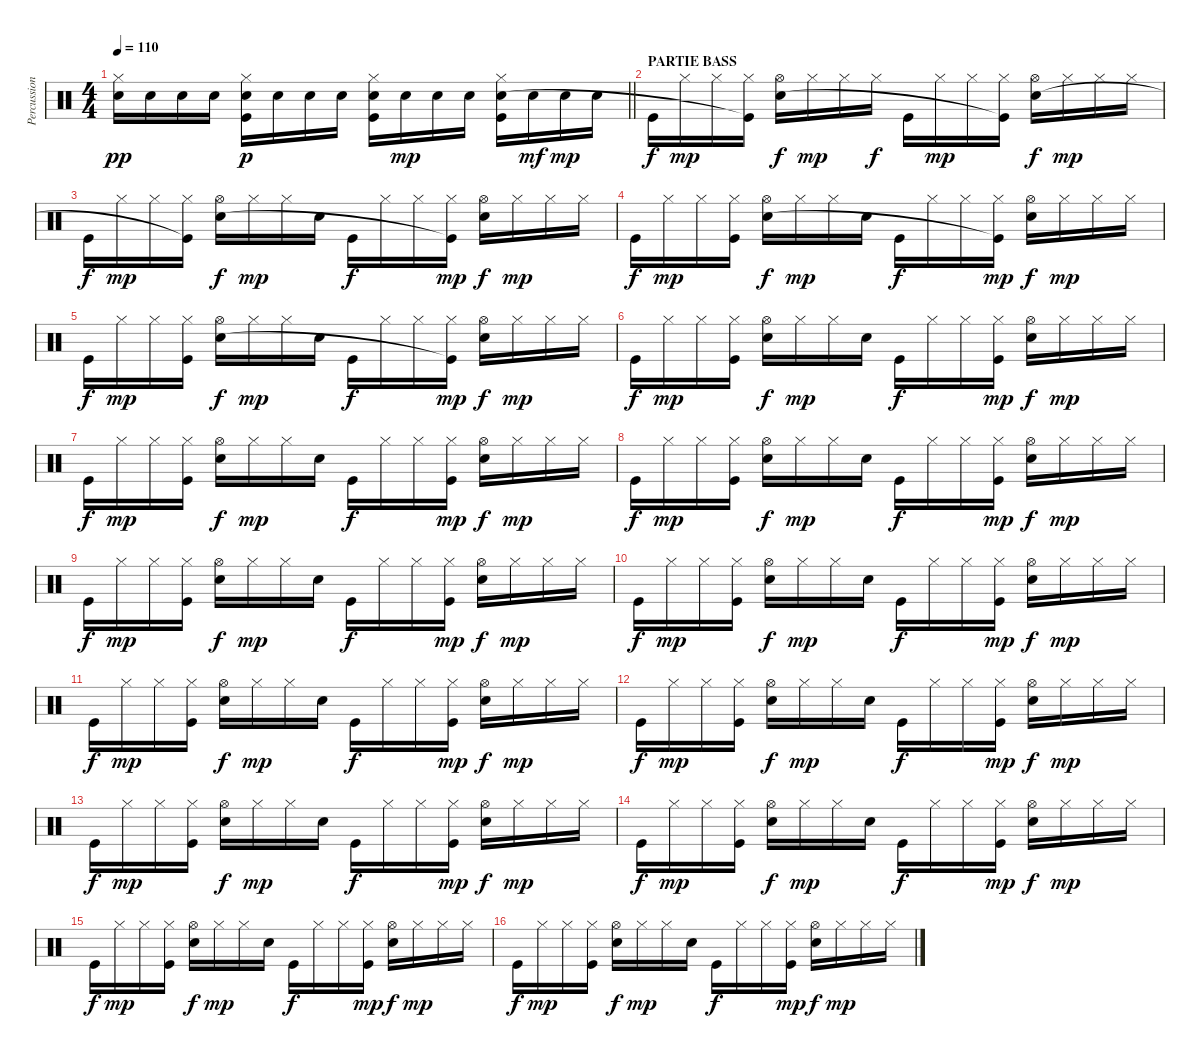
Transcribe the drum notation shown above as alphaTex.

\track ("Percussions" "Percussion") {instrument percussion}
\staff {score}
\articulation defaults
\ts (4 4)
\tempo 110
\clef neutral
\barLineRight lightlight
\ks c
("Hi-Hat (closed)" "Electric Snare (hit)").16{dy pp} "Electric Snare (hit)".16 "Electric Snare (hit)".16 "Electric Snare (hit)".16 ("Hi-Hat (closed)" "Electric Snare (hit)" "Kick (hit)").16{dy p} "Electric Snare (hit)".16 "Electric Snare (hit)".16 "Electric Snare (hit)".16 ("Hi-Hat (closed)" "Electric Snare (hit)" "Kick (hit)").16 "Electric Snare (hit)".16{dy mp} "Electric Snare (hit)".16 "Electric Snare (hit)".16 ("Hi-Hat (closed)" "Electric Snare (hit)" "Kick (hit)").16 "Electric Snare (hit)".16{dy mf} "Electric Snare (hit)".16{dy mp} "Electric Snare (hit)".16 |
\section ("" "PARTIE BASS")
"Kick (hit)".16{dy f} "Hi-Hat (closed)".16{dy mp} "Hi-Hat (closed)".16 ("Hi-Hat (closed)" "Kick (hit)"{t}).16 ("Hi-Hat (open)" "Electric Snare (hit)").16{dy f} "Hi-Hat (closed)".16{dy mp} "Hi-Hat (closed)".16 "Hi-Hat (closed)".16{dy f} "Kick (hit)".16 "Hi-Hat (closed)".16{dy mp} "Hi-Hat (closed)".16 ("Hi-Hat (closed)" "Kick (hit)"{t}).16 ("Hi-Hat (open)" "Electric Snare (hit)").16{dy f} "Hi-Hat (closed)".16{dy mp} "Hi-Hat (closed)".16 "Hi-Hat (closed)".16 |
"Kick (hit)".16{dy f} "Hi-Hat (closed)".16{dy mp} "Hi-Hat (closed)".16 ("Hi-Hat (closed)" "Kick (hit)"{t}).16 ("Hi-Hat (open)" "Electric Snare (hit)").16{dy f} "Hi-Hat (closed)".16{dy mp} "Hi-Hat (closed)".16 "Electric Snare (hit)".16 "Kick (hit)".16{dy f} "Hi-Hat (closed)".16 "Hi-Hat (closed)".16 ("Hi-Hat (closed)" "Kick (hit)"{t}).16{dy mp} ("Hi-Hat (open)" "Electric Snare (hit)").16{dy f} "Hi-Hat (closed)".16{dy mp} "Hi-Hat (closed)".16 "Hi-Hat (closed)".16 |
"Kick (hit)".16{dy f} "Hi-Hat (closed)".16{dy mp} "Hi-Hat (closed)".16 ("Hi-Hat (closed)" "Kick (hit)").16 ("Hi-Hat (open)" "Electric Snare (hit)").16{dy f} "Hi-Hat (closed)".16{dy mp} "Hi-Hat (closed)".16 "Electric Snare (hit)".16 "Kick (hit)".16{dy f} "Hi-Hat (closed)".16 "Hi-Hat (closed)".16 ("Hi-Hat (closed)" "Kick (hit)"{t}).16{dy mp} ("Hi-Hat (open)" "Electric Snare (hit)").16{dy f} "Hi-Hat (closed)".16{dy mp} "Hi-Hat (closed)".16 "Hi-Hat (closed)".16 |
"Kick (hit)".16{dy f} "Hi-Hat (closed)".16{dy mp} "Hi-Hat (closed)".16 ("Hi-Hat (closed)" "Kick (hit)").16 ("Hi-Hat (open)" "Electric Snare (hit)").16{dy f} "Hi-Hat (closed)".16{dy mp} "Hi-Hat (closed)".16 "Electric Snare (hit)".16 "Kick (hit)".16{dy f} "Hi-Hat (closed)".16 "Hi-Hat (closed)".16 ("Hi-Hat (closed)" "Kick (hit)"{t}).16{dy mp} ("Hi-Hat (open)" "Electric Snare (hit)").16{dy f} "Hi-Hat (closed)".16{dy mp} "Hi-Hat (closed)".16 "Hi-Hat (closed)".16 |
"Kick (hit)".16{dy f} "Hi-Hat (closed)".16{dy mp} "Hi-Hat (closed)".16 ("Hi-Hat (closed)" "Kick (hit)").16 ("Hi-Hat (open)" "Electric Snare (hit)").16{dy f} "Hi-Hat (closed)".16{dy mp} "Hi-Hat (closed)".16 "Electric Snare (hit)".16 "Kick (hit)".16{dy f} "Hi-Hat (closed)".16 "Hi-Hat (closed)".16 ("Hi-Hat (closed)" "Kick (hit)").16{dy mp} ("Hi-Hat (open)" "Electric Snare (hit)").16{dy f} "Hi-Hat (closed)".16{dy mp} "Hi-Hat (closed)".16 "Hi-Hat (closed)".16 |
"Kick (hit)".16{dy f} "Hi-Hat (closed)".16{dy mp} "Hi-Hat (closed)".16 ("Hi-Hat (closed)" "Kick (hit)").16 ("Hi-Hat (open)" "Electric Snare (hit)").16{dy f} "Hi-Hat (closed)".16{dy mp} "Hi-Hat (closed)".16 "Electric Snare (hit)".16 "Kick (hit)".16{dy f} "Hi-Hat (closed)".16 "Hi-Hat (closed)".16 ("Hi-Hat (closed)" "Kick (hit)").16{dy mp} ("Hi-Hat (open)" "Electric Snare (hit)").16{dy f} "Hi-Hat (closed)".16{dy mp} "Hi-Hat (closed)".16 "Hi-Hat (closed)".16 |
"Kick (hit)".16{dy f} "Hi-Hat (closed)".16{dy mp} "Hi-Hat (closed)".16 ("Hi-Hat (closed)" "Kick (hit)").16 ("Hi-Hat (open)" "Electric Snare (hit)").16{dy f} "Hi-Hat (closed)".16{dy mp} "Hi-Hat (closed)".16 "Electric Snare (hit)".16 "Kick (hit)".16{dy f} "Hi-Hat (closed)".16 "Hi-Hat (closed)".16 ("Hi-Hat (closed)" "Kick (hit)").16{dy mp} ("Hi-Hat (open)" "Electric Snare (hit)").16{dy f} "Hi-Hat (closed)".16{dy mp} "Hi-Hat (closed)".16 "Hi-Hat (closed)".16 |
"Kick (hit)".16{dy f} "Hi-Hat (closed)".16{dy mp} "Hi-Hat (closed)".16 ("Hi-Hat (closed)" "Kick (hit)").16 ("Hi-Hat (open)" "Electric Snare (hit)").16{dy f} "Hi-Hat (closed)".16{dy mp} "Hi-Hat (closed)".16 "Electric Snare (hit)".16 "Kick (hit)".16{dy f} "Hi-Hat (closed)".16 "Hi-Hat (closed)".16 ("Hi-Hat (closed)" "Kick (hit)").16{dy mp} ("Hi-Hat (open)" "Electric Snare (hit)").16{dy f} "Hi-Hat (closed)".16{dy mp} "Hi-Hat (closed)".16 "Hi-Hat (closed)".16 |
"Kick (hit)".16{dy f} "Hi-Hat (closed)".16{dy mp} "Hi-Hat (closed)".16 ("Hi-Hat (closed)" "Kick (hit)").16 ("Hi-Hat (open)" "Electric Snare (hit)").16{dy f} "Hi-Hat (closed)".16{dy mp} "Hi-Hat (closed)".16 "Electric Snare (hit)".16 "Kick (hit)".16{dy f} "Hi-Hat (closed)".16 "Hi-Hat (closed)".16 ("Hi-Hat (closed)" "Kick (hit)").16{dy mp} ("Hi-Hat (open)" "Electric Snare (hit)").16{dy f} "Hi-Hat (closed)".16{dy mp} "Hi-Hat (closed)".16 "Hi-Hat (closed)".16 |
"Kick (hit)".16{dy f} "Hi-Hat (closed)".16{dy mp} "Hi-Hat (closed)".16 ("Hi-Hat (closed)" "Kick (hit)").16 ("Hi-Hat (open)" "Electric Snare (hit)").16{dy f} "Hi-Hat (closed)".16{dy mp} "Hi-Hat (closed)".16 "Electric Snare (hit)".16 "Kick (hit)".16{dy f} "Hi-Hat (closed)".16 "Hi-Hat (closed)".16 ("Hi-Hat (closed)" "Kick (hit)").16{dy mp} ("Hi-Hat (open)" "Electric Snare (hit)").16{dy f} "Hi-Hat (closed)".16{dy mp} "Hi-Hat (closed)".16 "Hi-Hat (closed)".16 |
"Kick (hit)".16{dy f} "Hi-Hat (closed)".16{dy mp} "Hi-Hat (closed)".16 ("Hi-Hat (closed)" "Kick (hit)").16 ("Hi-Hat (open)" "Electric Snare (hit)").16{dy f} "Hi-Hat (closed)".16{dy mp} "Hi-Hat (closed)".16 "Electric Snare (hit)".16 "Kick (hit)".16{dy f} "Hi-Hat (closed)".16 "Hi-Hat (closed)".16 ("Hi-Hat (closed)" "Kick (hit)").16{dy mp} ("Hi-Hat (open)" "Electric Snare (hit)").16{dy f} "Hi-Hat (closed)".16{dy mp} "Hi-Hat (closed)".16 "Hi-Hat (closed)".16 |
"Kick (hit)".16{dy f} "Hi-Hat (closed)".16{dy mp} "Hi-Hat (closed)".16 ("Hi-Hat (closed)" "Kick (hit)").16 ("Hi-Hat (open)" "Electric Snare (hit)").16{dy f} "Hi-Hat (closed)".16{dy mp} "Hi-Hat (closed)".16 "Electric Snare (hit)".16 "Kick (hit)".16{dy f} "Hi-Hat (closed)".16 "Hi-Hat (closed)".16 ("Hi-Hat (closed)" "Kick (hit)").16{dy mp} ("Hi-Hat (open)" "Electric Snare (hit)").16{dy f} "Hi-Hat (closed)".16{dy mp} "Hi-Hat (closed)".16 "Hi-Hat (closed)".16 |
"Kick (hit)".16{dy f} "Hi-Hat (closed)".16{dy mp} "Hi-Hat (closed)".16 ("Hi-Hat (closed)" "Kick (hit)").16 ("Hi-Hat (open)" "Electric Snare (hit)").16{dy f} "Hi-Hat (closed)".16{dy mp} "Hi-Hat (closed)".16 "Electric Snare (hit)".16 "Kick (hit)".16{dy f} "Hi-Hat (closed)".16 "Hi-Hat (closed)".16 ("Hi-Hat (closed)" "Kick (hit)").16{dy mp} ("Hi-Hat (open)" "Electric Snare (hit)").16{dy f} "Hi-Hat (closed)".16{dy mp} "Hi-Hat (closed)".16 "Hi-Hat (closed)".16 |
"Kick (hit)".16{dy f} "Hi-Hat (closed)".16{dy mp} "Hi-Hat (closed)".16 ("Hi-Hat (closed)" "Kick (hit)").16 ("Hi-Hat (open)" "Electric Snare (hit)").16{dy f} "Hi-Hat (closed)".16{dy mp} "Hi-Hat (closed)".16 "Electric Snare (hit)".16 "Kick (hit)".16{dy f} "Hi-Hat (closed)".16 "Hi-Hat (closed)".16 ("Hi-Hat (closed)" "Kick (hit)").16{dy mp} ("Hi-Hat (open)" "Electric Snare (hit)").16{dy f} "Hi-Hat (closed)".16{dy mp} "Hi-Hat (closed)".16 "Hi-Hat (closed)".16 |
"Kick (hit)".16{dy f} "Hi-Hat (closed)".16{dy mp} "Hi-Hat (closed)".16 ("Hi-Hat (closed)" "Kick (hit)").16 ("Hi-Hat (open)" "Electric Snare (hit)").16{dy f} "Hi-Hat (closed)".16{dy mp} "Hi-Hat (closed)".16 "Electric Snare (hit)".16 "Kick (hit)".16{dy f} "Hi-Hat (closed)".16 "Hi-Hat (closed)".16 ("Hi-Hat (closed)" "Kick (hit)").16{dy mp} ("Hi-Hat (open)" "Electric Snare (hit)").16{dy f} "Hi-Hat (closed)".16{dy mp} "Hi-Hat (closed)".16 "Hi-Hat (closed)".16
